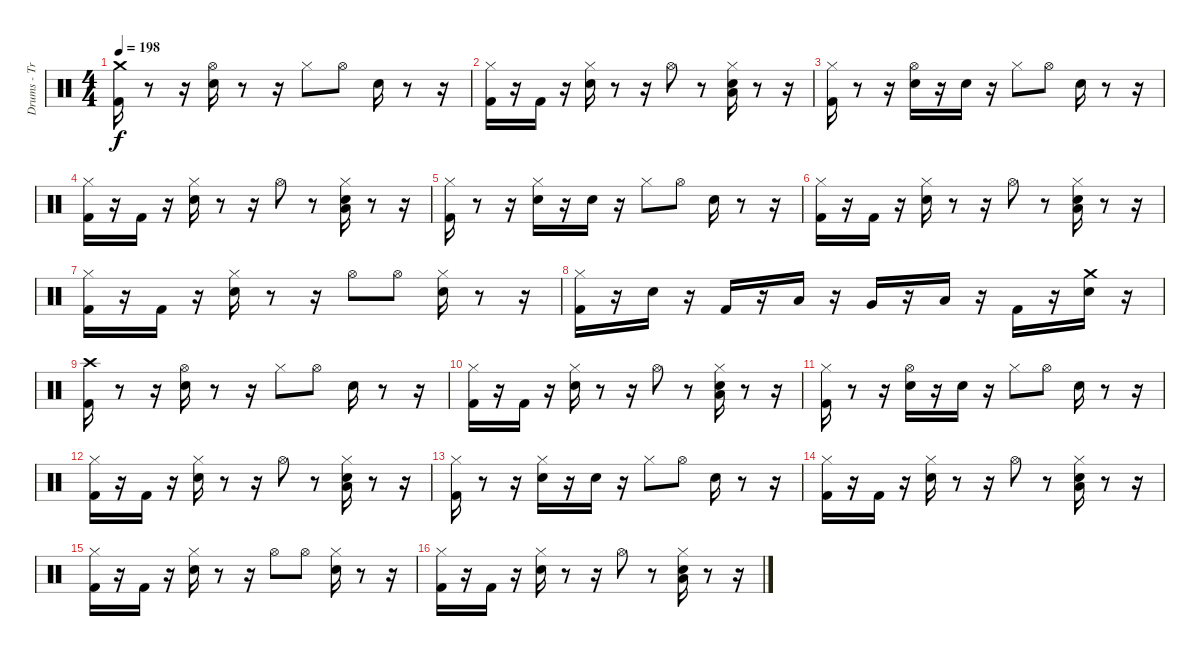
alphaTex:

\track ("Drums - Travis" "Drums - Tr") {instrument percussion}
\staff {score}
\articulation defaults
\ts (4 4)
\tempo 198
\clef neutral
\ks c
("Kick (hit) 2" "Crash medium (hit)").16{dy f} r.8 r.16 ("Electric Snare (hit)" "Hi-Hat (open)").16 r.8 r.16 "Hi-Hat (closed)".8 "Hi-Hat (open)".8 "Electric Snare (hit)".16 r.8 r.16 |
("Hi-Hat (closed)" "Kick (hit) 2").16 r.16 "Kick (hit) 2".16 r.16 ("Electric Snare (hit)" "Hi-Hat (closed)").16 r.8 r.16 "Hi-Hat (open)".8 r.8 ("Electric Snare (hit)" "Low Tom (hit)" "Hi-Hat (closed)").16 r.8 r.16 |
("Kick (hit) 2" "Hi-Hat (closed)").16 r.8 r.16 ("Electric Snare (hit)" "Hi-Hat (open)").16 r.16 "Electric Snare (hit)".16 r.16 "Hi-Hat (closed)".8 "Hi-Hat (open)".8 "Electric Snare (hit)".16 r.8 r.16 |
("Hi-Hat (closed)" "Kick (hit) 2").16 r.16 "Kick (hit) 2".16 r.16 ("Electric Snare (hit)" "Hi-Hat (closed)").16 r.8 r.16 "Hi-Hat (open)".8 r.8 ("Electric Snare (hit)" "Low Tom (hit)" "Hi-Hat (closed)").16 r.8 r.16 |
("Kick (hit) 2" "Hi-Hat (closed)").16 r.8 r.16 ("Electric Snare (hit)" "Hi-Hat (closed)").16 r.16 "Electric Snare (hit)".16 r.16 "Hi-Hat (closed)".8 "Hi-Hat (open)".8 "Electric Snare (hit)".16 r.8 r.16 |
("Hi-Hat (closed)" "Kick (hit) 2").16 r.16 "Kick (hit) 2".16 r.16 ("Electric Snare (hit)" "Hi-Hat (closed)").16 r.8 r.16 "Hi-Hat (open)".8 r.8 ("Electric Snare (hit)" "Low Tom (hit)" "Hi-Hat (closed)").16 r.8 r.16 |
("Kick (hit) 2" "Hi-Hat (closed)").16 r.16 "Kick (hit) 2".16 r.16 ("Electric Snare (hit)" "Hi-Hat (closed)").16 r.8 r.16 "Hi-Hat (open)".8 "Hi-Hat (open)".8 ("Electric Snare (hit)" "Hi-Hat (closed)").16 r.8 r.16 |
("Hi-Hat (closed)" "Kick (hit) 2").16 r.16 "Electric Snare (hit)".16 r.16 "Kick (hit) 2".16 r.16 "Low Tom (hit)".16 r.16 "Very Low Tom (hit)".16 r.16 "Low Floor Tom (hit)".16 r.16 "Kick (hit) 2".16 r.16 ("Crash medium (hit)" "Electric Snare (hit)").16 r.16 |
("Kick (hit) 2" "Crash high (hit)").16 r.8 r.16 ("Electric Snare (hit)" "Hi-Hat (open)").16 r.8 r.16 "Hi-Hat (closed)".8 "Hi-Hat (open)".8 "Electric Snare (hit)".16 r.8 r.16 |
("Hi-Hat (closed)" "Kick (hit) 2").16 r.16 "Kick (hit) 2".16 r.16 ("Electric Snare (hit)" "Hi-Hat (closed)").16 r.8 r.16 "Hi-Hat (open)".8 r.8 ("Electric Snare (hit)" "Low Tom (hit)" "Hi-Hat (closed)").16 r.8 r.16 |
("Kick (hit) 2" "Hi-Hat (closed)").16 r.8 r.16 ("Electric Snare (hit)" "Hi-Hat (open)").16 r.16 "Electric Snare (hit)".16 r.16 "Hi-Hat (closed)".8 "Hi-Hat (open)".8 "Electric Snare (hit)".16 r.8 r.16 |
("Hi-Hat (closed)" "Kick (hit) 2").16 r.16 "Kick (hit) 2".16 r.16 ("Electric Snare (hit)" "Hi-Hat (closed)").16 r.8 r.16 "Hi-Hat (open)".8 r.8 ("Electric Snare (hit)" "Low Tom (hit)" "Hi-Hat (closed)").16 r.8 r.16 |
("Kick (hit) 2" "Hi-Hat (closed)").16 r.8 r.16 ("Electric Snare (hit)" "Hi-Hat (closed)").16 r.16 "Electric Snare (hit)".16 r.16 "Hi-Hat (closed)".8 "Hi-Hat (open)".8 "Electric Snare (hit)".16 r.8 r.16 |
("Hi-Hat (closed)" "Kick (hit) 2").16 r.16 "Kick (hit) 2".16 r.16 ("Electric Snare (hit)" "Hi-Hat (closed)").16 r.8 r.16 "Hi-Hat (open)".8 r.8 ("Electric Snare (hit)" "Low Tom (hit)" "Hi-Hat (closed)").16 r.8 r.16 |
("Kick (hit) 2" "Hi-Hat (closed)").16 r.16 "Kick (hit) 2".16 r.16 ("Electric Snare (hit)" "Hi-Hat (closed)").16 r.8 r.16 "Hi-Hat (open)".8 "Hi-Hat (open)".8 ("Electric Snare (hit)" "Hi-Hat (closed)").16 r.8 r.16 |
("Hi-Hat (closed)" "Kick (hit) 2").16 r.16 "Kick (hit) 2".16 r.16 ("Electric Snare (hit)" "Hi-Hat (closed)").16 r.8 r.16 "Hi-Hat (open)".8 r.8 ("Electric Snare (hit)" "Low Tom (hit)" "Hi-Hat (closed)").16 r.8 r.16
